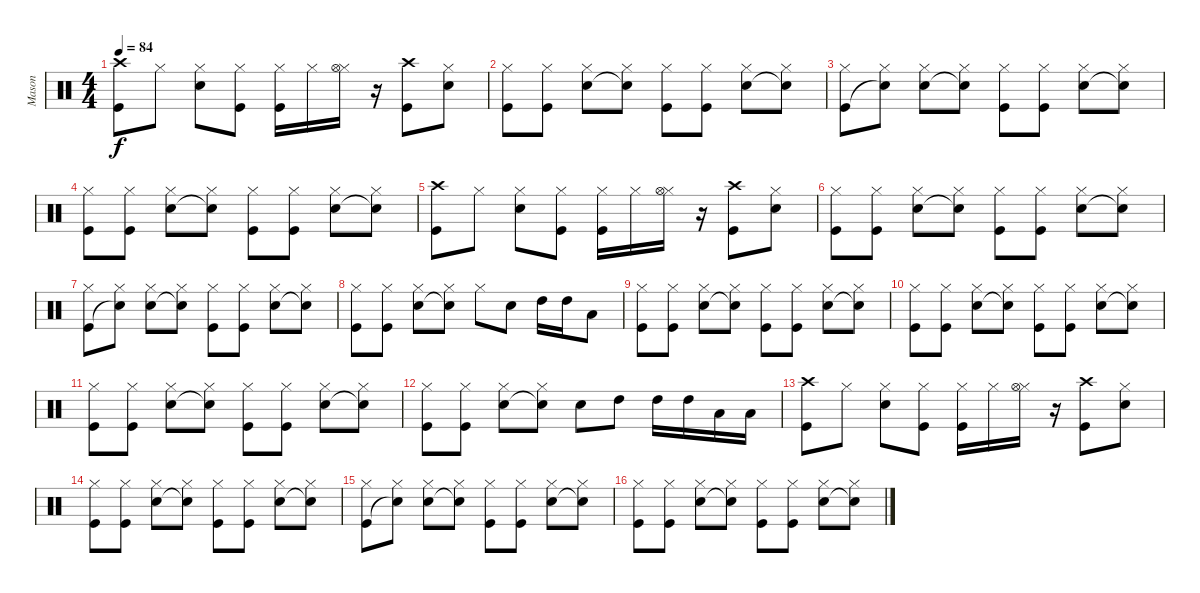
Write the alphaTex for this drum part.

\track ("Mason" "Mason") {instrument percussion}
\staff {score}
\articulation defaults
\ts (4 4)
\tempo 84
\clef neutral
\ks c
("Kick (hit)" "Crash high (hit)").8{dy f} "Hi-Hat (closed)".8 ("Snare (hit) 2" "Hi-Hat (closed)").8 ("Kick (hit)" "Hi-Hat (closed)").8 ("Kick (hit)" "Hi-Hat (closed)").16 "Hi-Hat (closed)".16 ("Hi-Hat (closed)" "Hi-Hat (open)").16 r.16 ("Kick (hit)" "Crash high (hit)").8 ("Snare (hit) 2" "Hi-Hat (closed)").8 |
("Kick (hit)" "Hi-Hat (closed)").8 ("Kick (hit)" "Hi-Hat (closed)").8 ("Snare (hit) 2" "Hi-Hat (closed)").8 ("Snare (hit)"{t} "Hi-Hat (closed)").8 ("Kick (hit)" "Hi-Hat (closed)").8 ("Kick (hit)" "Hi-Hat (closed)").8 ("Snare (hit) 2" "Hi-Hat (closed)").8 ("Snare (hit)"{t} "Hi-Hat (closed)").8 |
("Kick (hit)" "Hi-Hat (closed)").8 ("Snare (hit)"{t} "Hi-Hat (closed)").8 ("Snare (hit) 2" "Hi-Hat (closed)").8 ("Snare (hit)"{t} "Hi-Hat (closed)").8 ("Kick (hit)" "Hi-Hat (closed)").8 ("Kick (hit)" "Hi-Hat (closed)").8 ("Snare (hit) 2" "Hi-Hat (closed)").8 ("Snare (hit)"{t} "Hi-Hat (closed)").8 |
("Kick (hit)" "Hi-Hat (closed)").8 ("Kick (hit)" "Hi-Hat (closed)").8 ("Snare (hit) 2" "Hi-Hat (closed)").8 ("Snare (hit)"{t} "Hi-Hat (closed)").8 ("Kick (hit)" "Hi-Hat (closed)").8 ("Kick (hit)" "Hi-Hat (closed)").8 ("Snare (hit) 2" "Hi-Hat (closed)").8 ("Snare (hit)"{t} "Hi-Hat (closed)").8 |
("Kick (hit)" "Crash high (hit)").8 "Hi-Hat (closed)".8 ("Snare (hit) 2" "Hi-Hat (closed)").8 ("Kick (hit)" "Hi-Hat (closed)").8 ("Kick (hit)" "Hi-Hat (closed)").16 "Hi-Hat (closed)".16 ("Hi-Hat (closed)" "Hi-Hat (open)").16 r.16 ("Kick (hit)" "Crash high (hit)").8 ("Snare (hit) 2" "Hi-Hat (closed)").8 |
("Kick (hit)" "Hi-Hat (closed)").8 ("Kick (hit)" "Hi-Hat (closed)").8 ("Snare (hit) 2" "Hi-Hat (closed)").8 ("Snare (hit)"{t} "Hi-Hat (closed)").8 ("Kick (hit)" "Hi-Hat (closed)").8 ("Kick (hit)" "Hi-Hat (closed)").8 ("Snare (hit) 2" "Hi-Hat (closed)").8 ("Snare (hit)"{t} "Hi-Hat (closed)").8 |
("Kick (hit)" "Hi-Hat (closed)").8 ("Snare (hit)"{t} "Hi-Hat (closed)").8 ("Snare (hit) 2" "Hi-Hat (closed)").8 ("Snare (hit)"{t} "Hi-Hat (closed)").8 ("Kick (hit)" "Hi-Hat (closed)").8 ("Kick (hit)" "Hi-Hat (closed)").8 ("Snare (hit) 2" "Hi-Hat (closed)").8 ("Snare (hit)"{t} "Hi-Hat (closed)").8 |
("Kick (hit)" "Hi-Hat (closed)").8 ("Kick (hit)" "Hi-Hat (closed)").8 ("Snare (hit) 2" "Hi-Hat (closed)").8 ("Snare (hit)"{t} "Hi-Hat (closed)").8 "Hi-Hat (closed)".8 "Snare (hit) 2".8 "High Tom (hit)".16 "High Tom (hit)".16 "Low Floor Tom (hit)".8 |
("Kick (hit)" "Hi-Hat (closed)").8 ("Kick (hit)" "Hi-Hat (closed)").8 ("Snare (hit) 2" "Hi-Hat (closed)").8 ("Snare (hit)"{t} "Hi-Hat (closed)").8 ("Kick (hit)" "Hi-Hat (closed)").8 ("Kick (hit)" "Hi-Hat (closed)").8 ("Snare (hit) 2" "Hi-Hat (closed)").8 ("Snare (hit)"{t} "Hi-Hat (closed)").8 |
("Kick (hit)" "Hi-Hat (closed)").8 ("Kick (hit)" "Hi-Hat (closed)").8 ("Snare (hit) 2" "Hi-Hat (closed)").8 ("Snare (hit)"{t} "Hi-Hat (closed)").8 ("Kick (hit)" "Hi-Hat (closed)").8 ("Kick (hit)" "Hi-Hat (closed)").8 ("Snare (hit) 2" "Hi-Hat (closed)").8 ("Snare (hit)"{t} "Hi-Hat (closed)").8 |
("Kick (hit)" "Hi-Hat (closed)").8 ("Kick (hit)" "Hi-Hat (closed)").8 ("Snare (hit) 2" "Hi-Hat (closed)").8 ("Snare (hit)"{t} "Hi-Hat (closed)").8 ("Kick (hit)" "Hi-Hat (closed)").8 ("Kick (hit)" "Hi-Hat (closed)").8 ("Snare (hit) 2" "Hi-Hat (closed)").8 ("Snare (hit)"{t} "Hi-Hat (closed)").8 |
("Kick (hit)" "Hi-Hat (closed)").8 ("Kick (hit)" "Hi-Hat (closed)").8 ("Snare (hit) 2" "Hi-Hat (closed)").8 ("Snare (hit)"{t} "Hi-Hat (closed)").8 "Snare (hit) 2".8 "High Tom (hit)".8 "High Tom (hit)".16 "High Tom (hit)".16 "Low Floor Tom (hit)".16 "Low Floor Tom (hit)".16 |
("Kick (hit)" "Crash high (hit)").8 "Hi-Hat (closed)".8 ("Snare (hit) 2" "Hi-Hat (closed)").8 ("Kick (hit)" "Hi-Hat (closed)").8 ("Kick (hit)" "Hi-Hat (closed)").16 "Hi-Hat (closed)".16 ("Hi-Hat (closed)" "Hi-Hat (open)").16 r.16 ("Kick (hit)" "Crash high (hit)").8 ("Snare (hit) 2" "Hi-Hat (closed)").8 |
("Kick (hit)" "Hi-Hat (closed)").8 ("Kick (hit)" "Hi-Hat (closed)").8 ("Snare (hit) 2" "Hi-Hat (closed)").8 ("Snare (hit)"{t} "Hi-Hat (closed)").8 ("Kick (hit)" "Hi-Hat (closed)").8 ("Kick (hit)" "Hi-Hat (closed)").8 ("Snare (hit) 2" "Hi-Hat (closed)").8 ("Snare (hit)"{t} "Hi-Hat (closed)").8 |
("Kick (hit)" "Hi-Hat (closed)").8 ("Snare (hit)"{t} "Hi-Hat (closed)").8 ("Snare (hit) 2" "Hi-Hat (closed)").8 ("Snare (hit)"{t} "Hi-Hat (closed)").8 ("Kick (hit)" "Hi-Hat (closed)").8 ("Kick (hit)" "Hi-Hat (closed)").8 ("Snare (hit) 2" "Hi-Hat (closed)").8 ("Snare (hit)"{t} "Hi-Hat (closed)").8 |
("Kick (hit)" "Hi-Hat (closed)").8 ("Kick (hit)" "Hi-Hat (closed)").8 ("Snare (hit) 2" "Hi-Hat (closed)").8 ("Snare (hit)"{t} "Hi-Hat (closed)").8 ("Kick (hit)" "Hi-Hat (closed)").8 ("Kick (hit)" "Hi-Hat (closed)").8 ("Snare (hit) 2" "Hi-Hat (closed)").8 ("Snare (hit)"{t} "Hi-Hat (closed)").8
